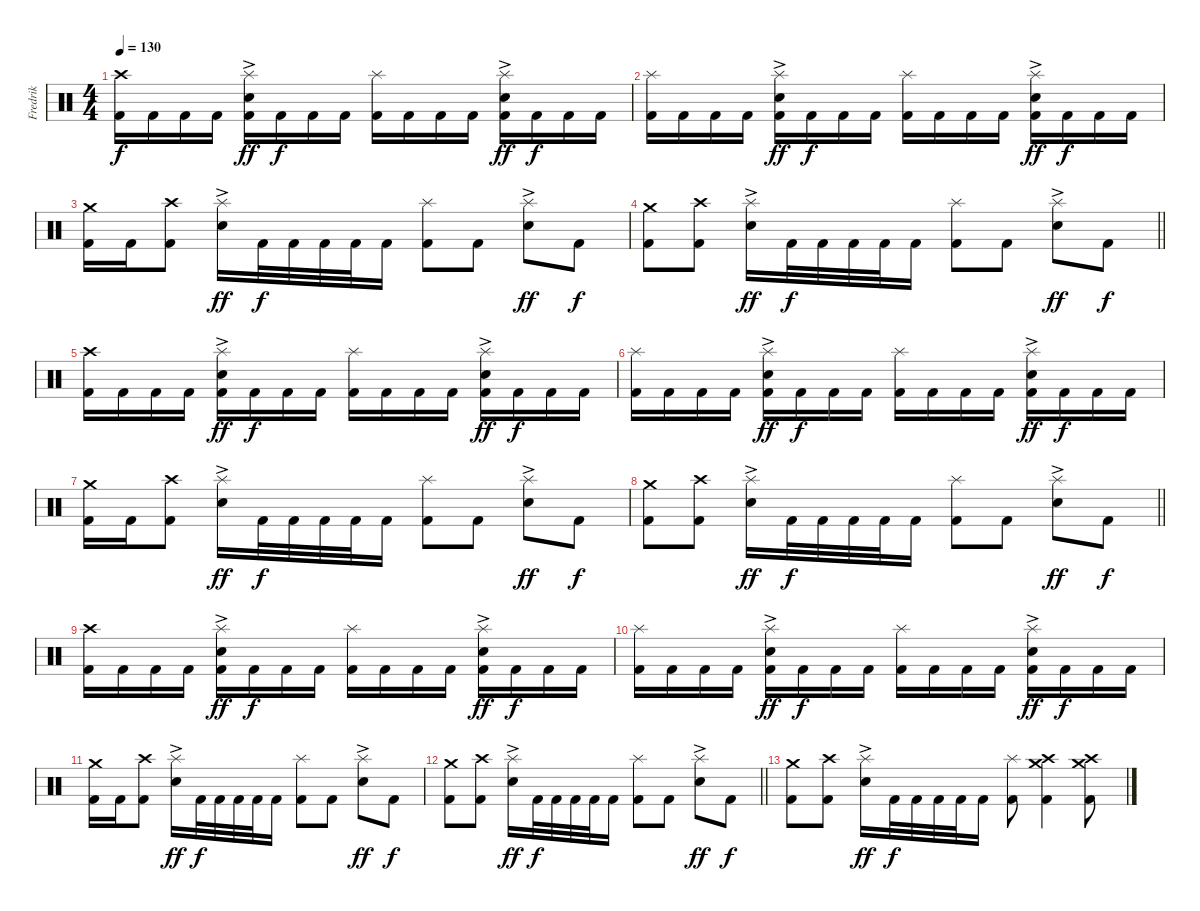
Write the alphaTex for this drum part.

\track ("Fredrik" "Fredrik") {instrument percussion}
\staff {score}
\articulation defaults
\ts (4 4)
\section ("" "")
\tempo 130
\clef neutral
\ks c
("Kick (hit) 2" "Crash high (hit)").16{dy f} "Kick (hit) 2".16 "Kick (hit) 2".16 "Kick (hit) 2".16 ("Kick (hit) 2" "Snare (hit) 2"{ac} "Splash (hit)").16{dy ff} "Kick (hit) 2".16{dy f} "Kick (hit) 2".16 "Kick (hit) 2".16 ("Kick (hit) 2" "Splash (hit)").16 "Kick (hit) 2".16 "Kick (hit) 2".16 "Kick (hit) 2".16 ("Kick (hit) 2" "Snare (hit) 2"{ac} "Splash (hit)").16{dy ff} "Kick (hit) 2".16{dy f} "Kick (hit) 2".16 "Kick (hit) 2".16 |
("Kick (hit) 2" "Splash (hit)").16 "Kick (hit) 2".16 "Kick (hit) 2".16 "Kick (hit) 2".16 ("Kick (hit) 2" "Snare (hit) 2"{ac} "Splash (hit)").16{dy ff} "Kick (hit) 2".16{dy f} "Kick (hit) 2".16 "Kick (hit) 2".16 ("Kick (hit) 2" "Splash (hit)").16 "Kick (hit) 2".16 "Kick (hit) 2".16 "Kick (hit) 2".16 ("Kick (hit) 2" "Snare (hit) 2"{ac} "Splash (hit)").16{dy ff} "Kick (hit) 2".16{dy f} "Kick (hit) 2".16 "Kick (hit) 2".16 |
("Kick (hit) 2" "Crash medium (hit)").16 "Kick (hit) 2".16 ("Kick (hit) 2" "Crash high (hit)").8 ("Snare (hit) 2"{ac} "Splash (hit)").16{dy ff} "Kick (hit) 2".32{dy f} "Kick (hit) 2".32 "Kick (hit) 2".32 "Kick (hit) 2".32 "Kick (hit) 2".16 ("Kick (hit) 2" "Splash (hit)").8 "Kick (hit) 2".8 ("Snare (hit) 2"{ac} "Splash (hit)").8{dy ff} "Kick (hit) 2".8{dy f} |
\barLineRight lightlight
("Kick (hit) 2" "Crash medium (hit)").8 ("Kick (hit) 2" "Crash high (hit)").8 ("Snare (hit) 2"{ac} "Splash (hit)").16{dy ff} "Kick (hit) 2".32{dy f} "Kick (hit) 2".32 "Kick (hit) 2".32 "Kick (hit) 2".32 "Kick (hit) 2".16 ("Kick (hit) 2" "Splash (hit)").8 "Kick (hit) 2".8 ("Snare (hit) 2"{ac} "Splash (hit)").8{dy ff} "Kick (hit) 2".8{dy f} |
\section ("" "")
("Kick (hit) 2" "Crash high (hit)").16 "Kick (hit) 2".16 "Kick (hit) 2".16 "Kick (hit) 2".16 ("Kick (hit) 2" "Snare (hit) 2"{ac} "Splash (hit)").16{dy ff} "Kick (hit) 2".16{dy f} "Kick (hit) 2".16 "Kick (hit) 2".16 ("Kick (hit) 2" "Splash (hit)").16 "Kick (hit) 2".16 "Kick (hit) 2".16 "Kick (hit) 2".16 ("Kick (hit) 2" "Snare (hit) 2"{ac} "Splash (hit)").16{dy ff} "Kick (hit) 2".16{dy f} "Kick (hit) 2".16 "Kick (hit) 2".16 |
("Kick (hit) 2" "Splash (hit)").16 "Kick (hit) 2".16 "Kick (hit) 2".16 "Kick (hit) 2".16 ("Kick (hit) 2" "Snare (hit) 2"{ac} "Splash (hit)").16{dy ff} "Kick (hit) 2".16{dy f} "Kick (hit) 2".16 "Kick (hit) 2".16 ("Kick (hit) 2" "Splash (hit)").16 "Kick (hit) 2".16 "Kick (hit) 2".16 "Kick (hit) 2".16 ("Kick (hit) 2" "Snare (hit) 2"{ac} "Splash (hit)").16{dy ff} "Kick (hit) 2".16{dy f} "Kick (hit) 2".16 "Kick (hit) 2".16 |
("Kick (hit) 2" "Crash medium (hit)").16 "Kick (hit) 2".16 ("Kick (hit) 2" "Crash high (hit)").8 ("Snare (hit) 2"{ac} "Splash (hit)").16{dy ff} "Kick (hit) 2".32{dy f} "Kick (hit) 2".32 "Kick (hit) 2".32 "Kick (hit) 2".32 "Kick (hit) 2".16 ("Kick (hit) 2" "Splash (hit)").8 "Kick (hit) 2".8 ("Snare (hit) 2"{ac} "Splash (hit)").8{dy ff} "Kick (hit) 2".8{dy f} |
\barLineRight lightlight
("Kick (hit) 2" "Crash medium (hit)").8 ("Kick (hit) 2" "Crash high (hit)").8 ("Snare (hit) 2"{ac} "Splash (hit)").16{dy ff} "Kick (hit) 2".32{dy f} "Kick (hit) 2".32 "Kick (hit) 2".32 "Kick (hit) 2".32 "Kick (hit) 2".16 ("Kick (hit) 2" "Splash (hit)").8 "Kick (hit) 2".8 ("Snare (hit) 2"{ac} "Splash (hit)").8{dy ff} "Kick (hit) 2".8{dy f} |
\section ("" "")
("Kick (hit) 2" "Crash high (hit)").16 "Kick (hit) 2".16 "Kick (hit) 2".16 "Kick (hit) 2".16 ("Kick (hit) 2" "Snare (hit) 2"{ac} "Splash (hit)").16{dy ff} "Kick (hit) 2".16{dy f} "Kick (hit) 2".16 "Kick (hit) 2".16 ("Kick (hit) 2" "Splash (hit)").16 "Kick (hit) 2".16 "Kick (hit) 2".16 "Kick (hit) 2".16 ("Kick (hit) 2" "Snare (hit) 2"{ac} "Splash (hit)").16{dy ff} "Kick (hit) 2".16{dy f} "Kick (hit) 2".16 "Kick (hit) 2".16 |
("Kick (hit) 2" "Splash (hit)").16 "Kick (hit) 2".16 "Kick (hit) 2".16 "Kick (hit) 2".16 ("Kick (hit) 2" "Snare (hit) 2"{ac} "Splash (hit)").16{dy ff} "Kick (hit) 2".16{dy f} "Kick (hit) 2".16 "Kick (hit) 2".16 ("Kick (hit) 2" "Splash (hit)").16 "Kick (hit) 2".16 "Kick (hit) 2".16 "Kick (hit) 2".16 ("Kick (hit) 2" "Snare (hit) 2"{ac} "Splash (hit)").16{dy ff} "Kick (hit) 2".16{dy f} "Kick (hit) 2".16 "Kick (hit) 2".16 |
("Kick (hit) 2" "Crash medium (hit)").16 "Kick (hit) 2".16 ("Kick (hit) 2" "Crash high (hit)").8 ("Snare (hit) 2"{ac} "Splash (hit)").16{dy ff} "Kick (hit) 2".32{dy f} "Kick (hit) 2".32 "Kick (hit) 2".32 "Kick (hit) 2".32 "Kick (hit) 2".16 ("Kick (hit) 2" "Splash (hit)").8 "Kick (hit) 2".8 ("Snare (hit) 2"{ac} "Splash (hit)").8{dy ff} "Kick (hit) 2".8{dy f} |
\barLineRight lightlight
("Kick (hit) 2" "Crash medium (hit)").8 ("Kick (hit) 2" "Crash high (hit)").8 ("Snare (hit) 2"{ac} "Splash (hit)").16{dy ff} "Kick (hit) 2".32{dy f} "Kick (hit) 2".32 "Kick (hit) 2".32 "Kick (hit) 2".32 "Kick (hit) 2".16 ("Kick (hit) 2" "Splash (hit)").8 "Kick (hit) 2".8 ("Snare (hit) 2"{ac} "Splash (hit)").8{dy ff} "Kick (hit) 2".8{dy f} |
\section ("" "")
("Kick (hit) 2" "Crash medium (hit)").8 ("Kick (hit) 2" "Crash high (hit)").8 ("Snare (hit) 2"{ac} "Splash (hit)").16{dy ff} "Kick (hit) 2".32{dy f} "Kick (hit) 2".32 "Kick (hit) 2".32 "Kick (hit) 2".32 "Kick (hit) 2".16 ("Kick (hit) 2" "Splash (hit)").8 ("Kick (hit) 2" "Crash medium (hit)" "Crash high (hit)").4 ("Kick (hit) 2" "Crash medium (hit)" "Crash high (hit)").8
